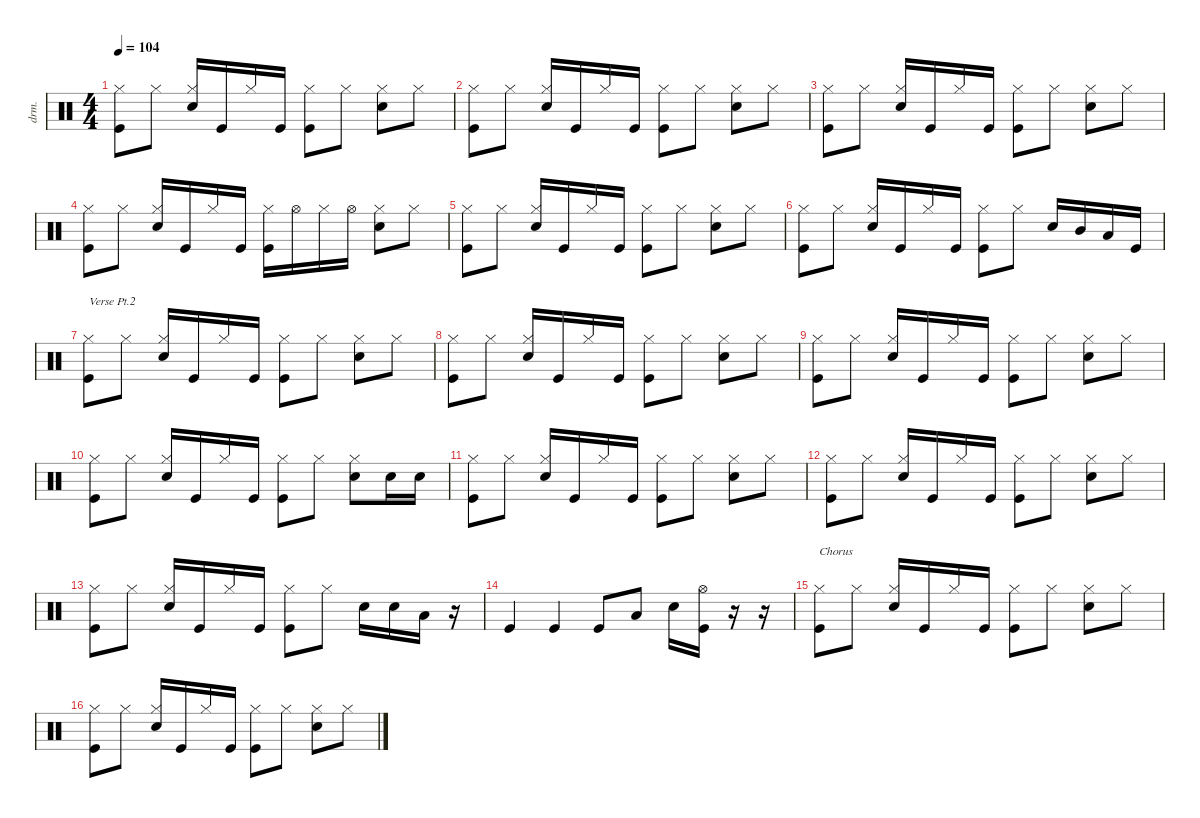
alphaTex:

\defaultSystemsLayout 4
\hideDynamics
\bracketExtendMode nobrackets
\otherSystemsTrackNameOrientation horizontal
\track ("Drumkit" "drm.") {instrument percussion}
\staff {score}
\articulation defaults
\ts (4 4)
\tempo 104
\clef neutral
\ks c
("Kick (hit)" "Hi-Hat (closed)").8{dy mf beam Down} "Hi-Hat (closed)".8{beam Down} ("Hi-Hat (closed)" "Snare (hit) 2").16{beam Up} "Kick (hit)".16{beam Up} "Hi-Hat (closed)".16{beam Up} "Kick (hit)".16{beam Up} ("Hi-Hat (closed)" "Kick (hit)").8{beam Down} "Hi-Hat (closed)".8{beam Down} ("Hi-Hat (closed)" "Snare (hit) 2").8{beam Down} "Hi-Hat (closed)".8{beam Down} |
("Kick (hit)" "Hi-Hat (closed)").8{beam Down} "Hi-Hat (closed)".8{beam Down} ("Hi-Hat (closed)" "Snare (hit) 2").16{beam Up} "Kick (hit)".16{beam Up} "Hi-Hat (closed)".16{beam Up} "Kick (hit)".16{beam Up} ("Hi-Hat (closed)" "Kick (hit)").8{beam Down} "Hi-Hat (closed)".8{beam Down} ("Hi-Hat (closed)" "Snare (hit) 2").8{beam Down} "Hi-Hat (closed)".8{beam Down} |
("Kick (hit)" "Hi-Hat (closed)").8{beam Down} "Hi-Hat (closed)".8{beam Down} ("Hi-Hat (closed)" "Snare (hit) 2").16{beam Up} "Kick (hit)".16{beam Up} "Hi-Hat (closed)".16{beam Up} "Kick (hit)".16{beam Up} ("Hi-Hat (closed)" "Kick (hit)").8{beam Down} "Hi-Hat (closed)".8{beam Down} ("Hi-Hat (closed)" "Snare (hit) 2").8{beam Down} "Hi-Hat (closed)".8{beam Down} |
("Kick (hit)" "Hi-Hat (closed)").8{beam Down} "Hi-Hat (closed)".8{beam Down} ("Hi-Hat (closed)" "Snare (hit) 2").16{beam Up} "Kick (hit)".16{beam Up} "Hi-Hat (closed)".16{beam Up} "Kick (hit)".16{beam Up} ("Kick (hit)" "Hi-Hat (closed)").16{beam Down} "Hi-Hat (open)".16{beam Down} "Hi-Hat (closed)".16{beam Down} "Hi-Hat (open)".16{beam Down} ("Snare (hit) 2" "Hi-Hat (closed)").8{beam Down} "Hi-Hat (closed)".8{beam Down} |
("Kick (hit)" "Hi-Hat (closed)").8{beam Down} "Hi-Hat (closed)".8{beam Down} ("Hi-Hat (closed)" "Snare (hit) 2").16{beam Up} "Kick (hit)".16{beam Up} "Hi-Hat (closed)".16{beam Up} "Kick (hit)".16{beam Up} ("Hi-Hat (closed)" "Kick (hit)").8{beam Down} "Hi-Hat (closed)".8{beam Down} ("Hi-Hat (closed)" "Snare (hit) 2").8{beam Down} "Hi-Hat (closed)".8{beam Down} |
("Kick (hit)" "Hi-Hat (closed)").8{beam Down} "Hi-Hat (closed)".8{beam Down} ("Hi-Hat (closed)" "Snare (hit) 2").16{beam Up} "Kick (hit)".16{beam Up} "Hi-Hat (closed)".16{beam Up} "Kick (hit)".16{beam Up} ("Hi-Hat (closed)" "Kick (hit)").8{beam Down} "Hi-Hat (closed)".8{beam Down} "Snare (hit) 2".16{beam Up} "Mid Tom (hit)".16{beam Up} "Low Tom (hit)".16{beam Up} "Kick (hit)".16{beam Up} |
("Kick (hit)" "Hi-Hat (closed)").8{txt "Verse Pt.2" beam Down} "Hi-Hat (closed)".8{beam Down} ("Hi-Hat (closed)" "Snare (hit) 2").16{beam Up} "Kick (hit)".16{beam Up} "Hi-Hat (closed)".16{beam Up} "Kick (hit)".16{beam Up} ("Hi-Hat (closed)" "Kick (hit)").8{beam Down} "Hi-Hat (closed)".8{beam Down} ("Hi-Hat (closed)" "Snare (hit) 2").8{beam Down} "Hi-Hat (closed)".8{beam Down} |
("Kick (hit)" "Hi-Hat (closed)").8{beam Down} "Hi-Hat (closed)".8{beam Down} ("Hi-Hat (closed)" "Snare (hit) 2").16{beam Up} "Kick (hit)".16{beam Up} "Hi-Hat (closed)".16{beam Up} "Kick (hit)".16{beam Up} ("Hi-Hat (closed)" "Kick (hit)").8{beam Down} "Hi-Hat (closed)".8{beam Down} ("Hi-Hat (closed)" "Snare (hit) 2").8{beam Down} "Hi-Hat (closed)".8{beam Down} |
("Kick (hit)" "Hi-Hat (closed)").8{beam Down} "Hi-Hat (closed)".8{beam Down} ("Hi-Hat (closed)" "Snare (hit) 2").16{beam Up} "Kick (hit)".16{beam Up} "Hi-Hat (closed)".16{beam Up} "Kick (hit)".16{beam Up} ("Hi-Hat (closed)" "Kick (hit)").8{beam Down} "Hi-Hat (closed)".8{beam Down} ("Hi-Hat (closed)" "Snare (hit) 2").8{beam Down} "Hi-Hat (closed)".8{beam Down} |
("Kick (hit)" "Hi-Hat (closed)").8{beam Down} "Hi-Hat (closed)".8{beam Down} ("Hi-Hat (closed)" "Snare (hit) 2").16{beam Up} "Kick (hit)".16{beam Up} "Hi-Hat (closed)".16{beam Up} "Kick (hit)".16{beam Up} ("Hi-Hat (closed)" "Kick (hit)").8{beam Down} "Hi-Hat (closed)".8{beam Down} ("Hi-Hat (closed)" "Snare (hit) 2").8{beam Down} "Snare (hit) 2".16{beam Down} "Snare (hit) 2".16{beam Down} |
("Kick (hit)" "Hi-Hat (closed)").8{beam Down} "Hi-Hat (closed)".8{beam Down} ("Hi-Hat (closed)" "Snare (hit) 2").16{beam Up} "Kick (hit)".16{beam Up} "Hi-Hat (closed)".16{beam Up} "Kick (hit)".16{beam Up} ("Hi-Hat (closed)" "Kick (hit)").8{beam Down} "Hi-Hat (closed)".8{beam Down} ("Hi-Hat (closed)" "Snare (hit) 2").8{beam Down} "Hi-Hat (closed)".8{beam Down} |
("Kick (hit)" "Hi-Hat (closed)").8{beam Down} "Hi-Hat (closed)".8{beam Down} ("Hi-Hat (closed)" "Snare (hit) 2").16{beam Up} "Kick (hit)".16{beam Up} "Hi-Hat (closed)".16{beam Up} "Kick (hit)".16{beam Up} ("Hi-Hat (closed)" "Kick (hit)").8{beam Down} "Hi-Hat (closed)".8{beam Down} ("Hi-Hat (closed)" "Snare (hit) 2").8{beam Down} "Hi-Hat (closed)".8{beam Down} |
("Kick (hit)" "Hi-Hat (closed)").8{beam Down} "Hi-Hat (closed)".8{beam Down} ("Hi-Hat (closed)" "Snare (hit) 2").16{beam Up} "Kick (hit)".16{beam Up} "Hi-Hat (closed)".16{beam Up} "Kick (hit)".16{beam Up} ("Hi-Hat (closed)" "Kick (hit)").8{beam Down} "Hi-Hat (closed)".8{beam Down} "Snare (hit) 2".16{beam Down} "Snare (hit) 2".16{beam Down} "Low Tom (hit)".16{beam Down} r.16{beam Down} |
"Kick (hit)".4{beam Up} "Kick (hit)".4{beam Up} "Kick (hit)".8{beam Up} "Low Tom (hit)".8{beam Up} "Snare (hit) 2".16{beam Down} ("Kick (hit)" "Hi-Hat (open)").16{beam Down} r.16{beam Down} r.16{beam Down} |
("Kick (hit)" "Hi-Hat (closed)").8{txt "Chorus" beam Down} "Hi-Hat (closed)".8{beam Down} ("Hi-Hat (closed)" "Snare (hit) 2").16{beam Up} "Kick (hit)".16{beam Up} "Hi-Hat (closed)".16{beam Up} "Kick (hit)".16{beam Up} ("Hi-Hat (closed)" "Kick (hit)").8{beam Down} "Hi-Hat (closed)".8{beam Down} ("Hi-Hat (closed)" "Snare (hit) 2").8{beam Down} "Hi-Hat (closed)".8{beam Down} |
("Kick (hit)" "Hi-Hat (closed)").8{beam Down} "Hi-Hat (closed)".8{beam Down} ("Hi-Hat (closed)" "Snare (hit) 2").16{beam Up} "Kick (hit)".16{beam Up} "Hi-Hat (closed)".16{beam Up} "Kick (hit)".16{beam Up} ("Hi-Hat (closed)" "Kick (hit)").8{beam Down} "Hi-Hat (closed)".8{beam Down} ("Hi-Hat (closed)" "Snare (hit) 2").8{beam Down} "Hi-Hat (closed)".8{beam Down}
